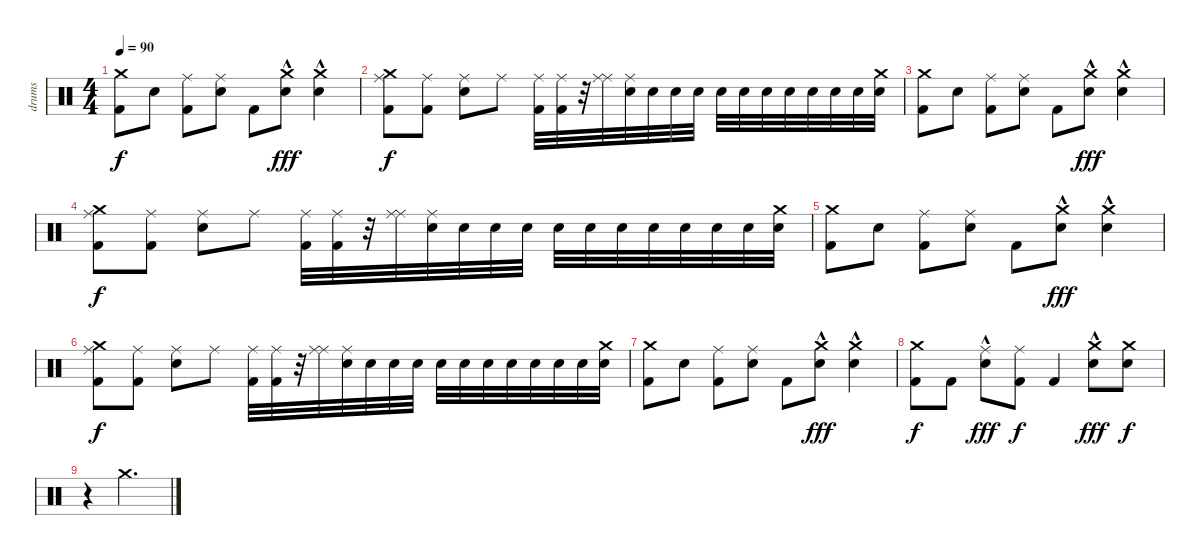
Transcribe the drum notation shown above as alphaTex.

\track ("drums" "drums") {instrument percussion}
\staff {score}
\articulation defaults
\ts (4 4)
\tempo 90
\clef neutral
\ks c
("Kick (hit) 2" "Crash medium (hit)").8{dy f} "Electric Snare (hit)".8 ("Kick (hit) 2" "Ride (middle)").8 ("Electric Snare (hit)" "Ride (middle)").8 "Kick (hit) 2".8 ("Electric Snare (hit)"{hac} "Crash medium (hit)"{hac}).8{dy fff} ("Electric Snare (hit)"{hac} "Crash medium (hit)"{hac}).4 |
("Crash medium (hit)" "Kick (hit) 2" "Ride (middle)").8{dy f} ("Kick (hit) 2" "Ride (middle)").8 ("Electric Snare (hit)" "Ride (middle)").8 "Ride (middle)".8 ("Kick (hit) 2" "Ride (middle)").32 ("Kick (hit) 2" "Ride (middle)").32 r.32 ("Ride (middle)" "Ride (middle)").32 ("Electric Snare (hit)" "Ride (middle)").32 "Electric Snare (hit)".32 "Electric Snare (hit)".32 "Electric Snare (hit)".32 "Electric Snare (hit)".32 "Electric Snare (hit)".32 "Electric Snare (hit)".32 "Electric Snare (hit)".32 "Electric Snare (hit)".32 "Electric Snare (hit)".32 "Electric Snare (hit)".32 ("Electric Snare (hit)" "Crash medium (hit)").32 |
("Kick (hit) 2" "Crash medium (hit)").8 "Electric Snare (hit)".8 ("Kick (hit) 2" "Ride (middle)").8 ("Electric Snare (hit)" "Ride (middle)").8 "Kick (hit) 2".8 ("Electric Snare (hit)"{hac} "Crash medium (hit)"{hac}).8{dy fff} ("Electric Snare (hit)"{hac} "Crash medium (hit)"{hac}).4 |
("Crash medium (hit)" "Kick (hit) 2" "Ride (middle)").8{dy f} ("Kick (hit) 2" "Ride (middle)").8 ("Electric Snare (hit)" "Ride (middle)").8 "Ride (middle)".8 ("Kick (hit) 2" "Ride (middle)").32 ("Kick (hit) 2" "Ride (middle)").32 r.32 ("Ride (middle)" "Ride (middle)").32 ("Electric Snare (hit)" "Ride (middle)").32 "Electric Snare (hit)".32 "Electric Snare (hit)".32 "Electric Snare (hit)".32 "Electric Snare (hit)".32 "Electric Snare (hit)".32 "Electric Snare (hit)".32 "Electric Snare (hit)".32 "Electric Snare (hit)".32 "Electric Snare (hit)".32 "Electric Snare (hit)".32 ("Electric Snare (hit)" "Crash medium (hit)").32 |
("Kick (hit) 2" "Crash medium (hit)").8 "Electric Snare (hit)".8 ("Kick (hit) 2" "Ride (middle)").8 ("Electric Snare (hit)" "Ride (middle)").8 "Kick (hit) 2".8 ("Electric Snare (hit)"{hac} "Crash medium (hit)"{hac}).8{dy fff} ("Electric Snare (hit)"{hac} "Crash medium (hit)"{hac}).4 |
("Crash medium (hit)" "Kick (hit) 2" "Ride (middle)").8{dy f} ("Kick (hit) 2" "Ride (middle)").8 ("Electric Snare (hit)" "Ride (middle)").8 "Ride (middle)".8 ("Kick (hit) 2" "Ride (middle)").32 ("Kick (hit) 2" "Ride (middle)").32 r.32 ("Ride (middle)" "Ride (middle)").32 ("Electric Snare (hit)" "Ride (middle)").32 "Electric Snare (hit)".32 "Electric Snare (hit)".32 "Electric Snare (hit)".32 "Electric Snare (hit)".32 "Electric Snare (hit)".32 "Electric Snare (hit)".32 "Electric Snare (hit)".32 "Electric Snare (hit)".32 "Electric Snare (hit)".32 "Electric Snare (hit)".32 ("Electric Snare (hit)" "Crash medium (hit)").32 |
("Kick (hit) 2" "Crash medium (hit)").8 "Electric Snare (hit)".8 ("Kick (hit) 2" "Ride (middle)").8 ("Electric Snare (hit)" "Ride (middle)").8 "Kick (hit) 2".8 ("Electric Snare (hit)"{hac} "Crash medium (hit)"{hac}).8{dy fff} ("Electric Snare (hit)"{hac} "Crash medium (hit)"{hac}).4 |
("Kick (hit) 2" "Crash medium (hit)").8{dy f} "Kick (hit) 2".8 ("Electric Snare (hit)"{hac} "Ride (middle)").8{dy fff} ("Kick (hit) 2" "Ride (middle)").8{dy f} "Kick (hit) 2".4 ("Electric Snare (hit)"{hac} "Crash medium (hit)"{hac}).8{dy fff} ("Electric Snare (hit)" "Crash medium (hit)").8{dy f} |
r.4 "Crash medium (hit)".2{d}
